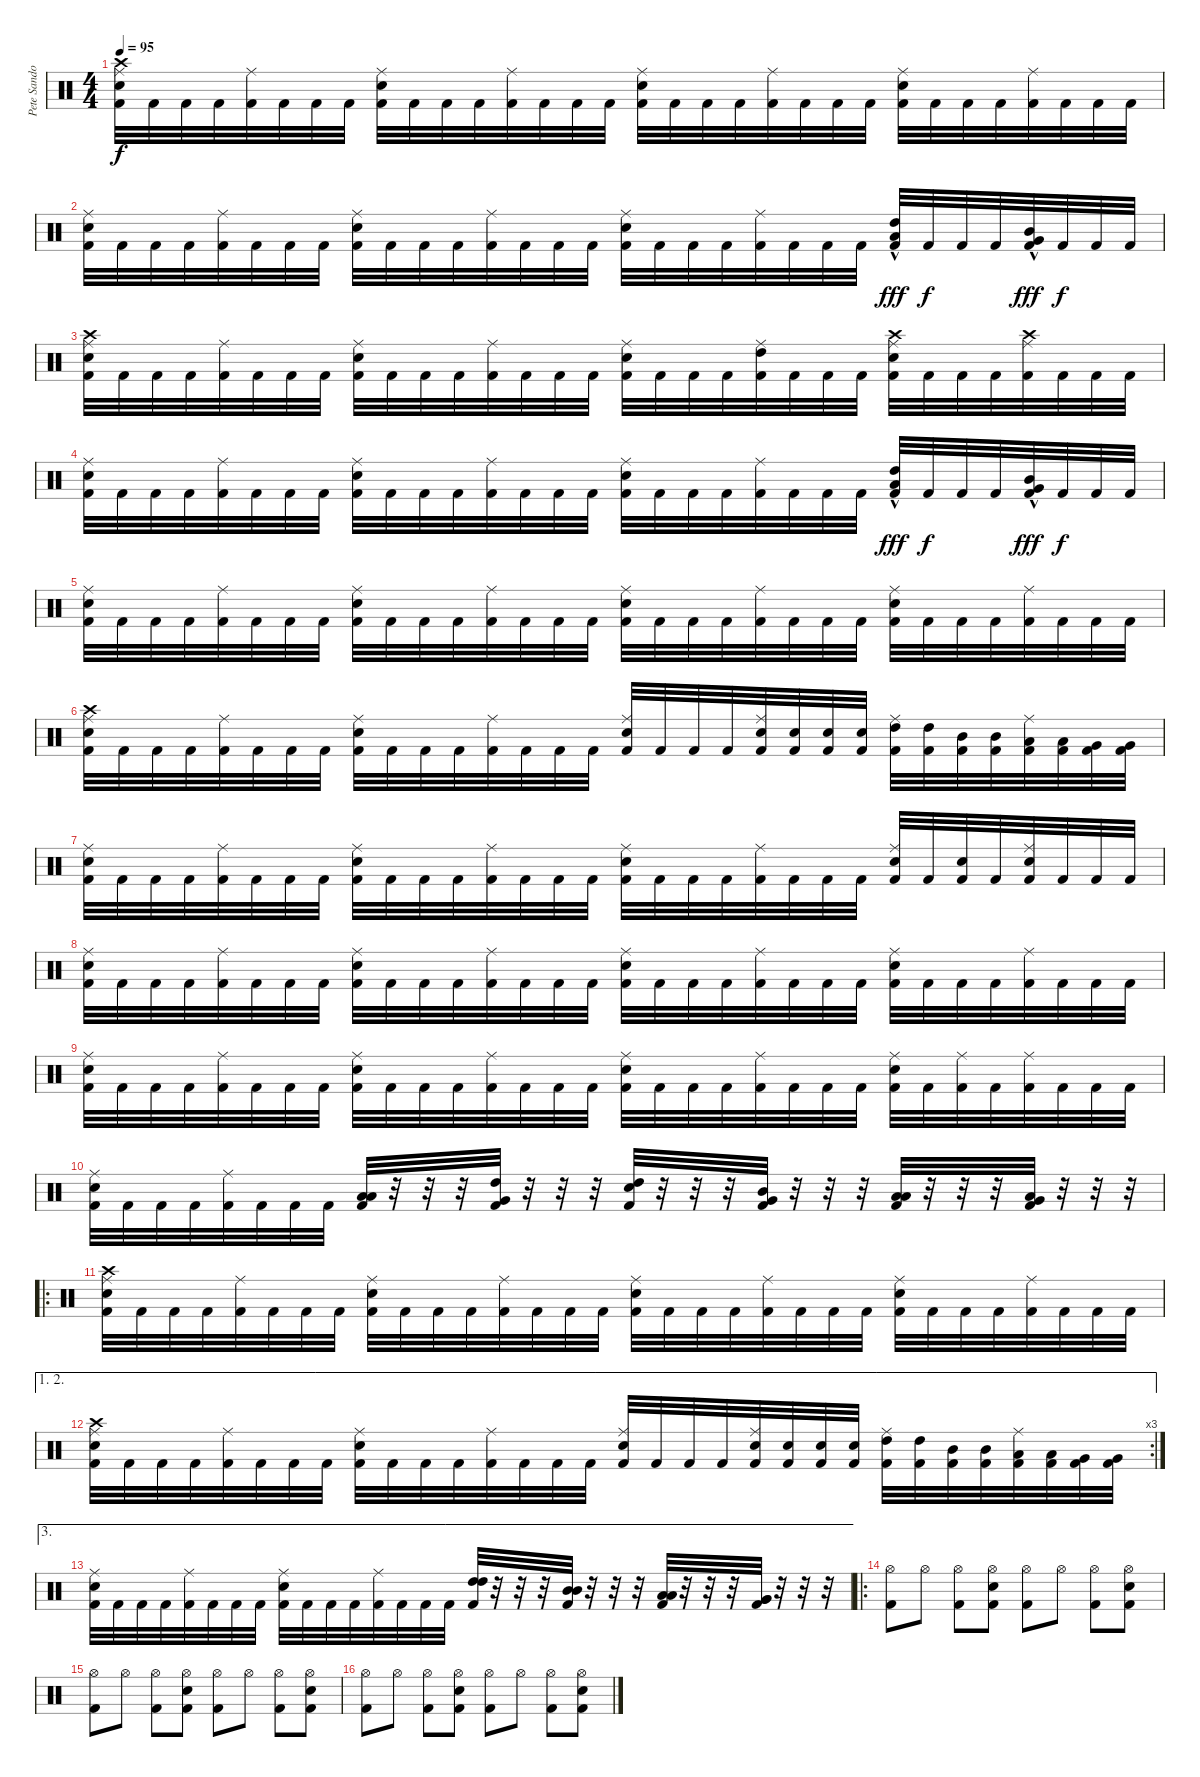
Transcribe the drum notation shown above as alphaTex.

\track ("Pete Sandoval" "Pete Sando") {instrument percussion}
\staff {score}
\articulation defaults
\ts (4 4)
\tempo 95
\clef neutral
\ks c
("Crash high (hit)" "Electric Snare (hit)" "Ride (middle)" "Kick (hit) 2").32{dy f} "Kick (hit) 2".32 "Kick (hit) 2".32 "Kick (hit) 2".32 ("Ride (middle)" "Kick (hit) 2").32 "Kick (hit) 2".32 "Kick (hit) 2".32 "Kick (hit) 2".32 ("Electric Snare (hit)" "Ride (middle)" "Kick (hit) 2").32 "Kick (hit) 2".32 "Kick (hit) 2".32 "Kick (hit) 2".32 ("Ride (middle)" "Kick (hit) 2").32 "Kick (hit) 2".32 "Kick (hit) 2".32 "Kick (hit) 2".32 ("Electric Snare (hit)" "Ride (middle)" "Kick (hit) 2").32 "Kick (hit) 2".32 "Kick (hit) 2".32 "Kick (hit) 2".32 ("Ride (middle)" "Kick (hit) 2").32 "Kick (hit) 2".32 "Kick (hit) 2".32 "Kick (hit) 2".32 ("Electric Snare (hit)" "Ride (middle)" "Kick (hit) 2").32 "Kick (hit) 2".32 "Kick (hit) 2".32 "Kick (hit) 2".32 ("Ride (middle)" "Kick (hit) 2").32 "Kick (hit) 2".32 "Kick (hit) 2".32 "Kick (hit) 2".32 |
("Electric Snare (hit)" "Ride (middle)" "Kick (hit) 2").32 "Kick (hit) 2".32 "Kick (hit) 2".32 "Kick (hit) 2".32 ("Ride (middle)" "Kick (hit) 2").32 "Kick (hit) 2".32 "Kick (hit) 2".32 "Kick (hit) 2".32 ("Electric Snare (hit)" "Ride (middle)" "Kick (hit) 2").32 "Kick (hit) 2".32 "Kick (hit) 2".32 "Kick (hit) 2".32 ("Ride (middle)" "Kick (hit) 2").32 "Kick (hit) 2".32 "Kick (hit) 2".32 "Kick (hit) 2".32 ("Electric Snare (hit)" "Ride (middle)" "Kick (hit) 2").32 "Kick (hit) 2".32 "Kick (hit) 2".32 "Kick (hit) 2".32 ("Ride (middle)" "Kick (hit) 2").32 "Kick (hit) 2".32 "Kick (hit) 2".32 "Kick (hit) 2".32 ("Low Tom (hit)" "High Tom (hit)"{hac} "Kick (hit) 2").32{dy fff} "Kick (hit) 2".32{dy f} "Kick (hit) 2".32 "Kick (hit) 2".32 ("Very Low Tom (hit)"{hac} "Mid Tom (hit)"{hac} "Kick (hit) 2").32{dy fff} "Kick (hit) 2".32{dy f} "Kick (hit) 2".32 "Kick (hit) 2".32 |
("Crash high (hit)" "Electric Snare (hit)" "Ride (middle)" "Kick (hit) 2").32 "Kick (hit) 2".32 "Kick (hit) 2".32 "Kick (hit) 2".32 ("Ride (middle)" "Kick (hit) 2").32 "Kick (hit) 2".32 "Kick (hit) 2".32 "Kick (hit) 2".32 ("Electric Snare (hit)" "Ride (middle)" "Kick (hit) 2").32 "Kick (hit) 2".32 "Kick (hit) 2".32 "Kick (hit) 2".32 ("Ride (middle)" "Kick (hit) 2").32 "Kick (hit) 2".32 "Kick (hit) 2".32 "Kick (hit) 2".32 ("Electric Snare (hit)" "Ride (middle)" "Kick (hit) 2").32 "Kick (hit) 2".32 "Kick (hit) 2".32 "Kick (hit) 2".32 ("High Tom (hit)" "Ride (middle)" "Kick (hit) 2").32 "Kick (hit) 2".32 "Kick (hit) 2".32 "Kick (hit) 2".32 ("Crash high (hit)" "Electric Snare (hit)" "Ride (middle)" "Kick (hit) 2").32 "Kick (hit) 2".32 "Kick (hit) 2".32 "Kick (hit) 2".32 ("Crash high (hit)" "Ride (middle)" "Kick (hit) 2").32 "Kick (hit) 2".32 "Kick (hit) 2".32 "Kick (hit) 2".32 |
("Electric Snare (hit)" "Ride (middle)" "Kick (hit) 2").32 "Kick (hit) 2".32 "Kick (hit) 2".32 "Kick (hit) 2".32 ("Ride (middle)" "Kick (hit) 2").32 "Kick (hit) 2".32 "Kick (hit) 2".32 "Kick (hit) 2".32 ("Electric Snare (hit)" "Ride (middle)" "Kick (hit) 2").32 "Kick (hit) 2".32 "Kick (hit) 2".32 "Kick (hit) 2".32 ("Ride (middle)" "Kick (hit) 2").32 "Kick (hit) 2".32 "Kick (hit) 2".32 "Kick (hit) 2".32 ("Electric Snare (hit)" "Ride (middle)" "Kick (hit) 2").32 "Kick (hit) 2".32 "Kick (hit) 2".32 "Kick (hit) 2".32 ("Ride (middle)" "Kick (hit) 2").32 "Kick (hit) 2".32 "Kick (hit) 2".32 "Kick (hit) 2".32 ("Low Tom (hit)" "High Tom (hit)"{hac} "Kick (hit) 2").32{dy fff} "Kick (hit) 2".32{dy f} "Kick (hit) 2".32 "Kick (hit) 2".32 ("Very Low Tom (hit)"{hac} "Mid Tom (hit)"{hac} "Kick (hit) 2").32{dy fff} "Kick (hit) 2".32{dy f} "Kick (hit) 2".32 "Kick (hit) 2".32 |
("Electric Snare (hit)" "Ride (middle)" "Kick (hit) 2").32 "Kick (hit) 2".32 "Kick (hit) 2".32 "Kick (hit) 2".32 ("Ride (middle)" "Kick (hit) 2").32 "Kick (hit) 2".32 "Kick (hit) 2".32 "Kick (hit) 2".32 ("Electric Snare (hit)" "Ride (middle)" "Kick (hit) 2").32 "Kick (hit) 2".32 "Kick (hit) 2".32 "Kick (hit) 2".32 ("Ride (middle)" "Kick (hit) 2").32 "Kick (hit) 2".32 "Kick (hit) 2".32 "Kick (hit) 2".32 ("Electric Snare (hit)" "Ride (middle)" "Kick (hit) 2").32 "Kick (hit) 2".32 "Kick (hit) 2".32 "Kick (hit) 2".32 ("Ride (middle)" "Kick (hit) 2").32 "Kick (hit) 2".32 "Kick (hit) 2".32 "Kick (hit) 2".32 ("Electric Snare (hit)" "Ride (middle)" "Kick (hit) 2").32 "Kick (hit) 2".32 "Kick (hit) 2".32 "Kick (hit) 2".32 ("Ride (middle)" "Kick (hit) 2").32 "Kick (hit) 2".32 "Kick (hit) 2".32 "Kick (hit) 2".32 |
("Crash high (hit)" "Electric Snare (hit)" "Ride (middle)" "Kick (hit) 2").32 "Kick (hit) 2".32 "Kick (hit) 2".32 "Kick (hit) 2".32 ("Ride (middle)" "Kick (hit) 2").32 "Kick (hit) 2".32 "Kick (hit) 2".32 "Kick (hit) 2".32 ("Electric Snare (hit)" "Ride (middle)" "Kick (hit) 2").32 "Kick (hit) 2".32 "Kick (hit) 2".32 "Kick (hit) 2".32 ("Ride (middle)" "Kick (hit) 2").32 "Kick (hit) 2".32 "Kick (hit) 2".32 "Kick (hit) 2".32 ("Electric Snare (hit)" "Ride (middle)" "Kick (hit) 2").32 "Kick (hit) 2".32 "Kick (hit) 2".32 "Kick (hit) 2".32 ("Electric Snare (hit)" "Ride (middle)" "Kick (hit) 2").32 ("Electric Snare (hit)" "Kick (hit) 2").32 ("Electric Snare (hit)" "Kick (hit) 2").32 ("Electric Snare (hit)" "Kick (hit) 2").32 ("High Tom (hit)" "Ride (middle)" "Kick (hit) 2").32 ("High Tom (hit)" "Kick (hit) 2").32 ("Mid Tom (hit)" "Kick (hit) 2").32 ("Mid Tom (hit)" "Kick (hit) 2").32 ("Low Tom (hit)" "Ride (middle)" "Kick (hit) 2").32 ("Low Tom (hit)" "Kick (hit) 2").32 ("Very Low Tom (hit)" "Kick (hit) 2").32 ("Very Low Tom (hit)" "Kick (hit) 2").32 |
("Electric Snare (hit)" "Ride (middle)" "Kick (hit) 2").32 "Kick (hit) 2".32 "Kick (hit) 2".32 "Kick (hit) 2".32 ("Ride (middle)" "Kick (hit) 2").32 "Kick (hit) 2".32 "Kick (hit) 2".32 "Kick (hit) 2".32 ("Electric Snare (hit)" "Ride (middle)" "Kick (hit) 2").32 "Kick (hit) 2".32 "Kick (hit) 2".32 "Kick (hit) 2".32 ("Ride (middle)" "Kick (hit) 2").32 "Kick (hit) 2".32 "Kick (hit) 2".32 "Kick (hit) 2".32 ("Electric Snare (hit)" "Ride (middle)" "Kick (hit) 2").32 "Kick (hit) 2".32 "Kick (hit) 2".32 "Kick (hit) 2".32 ("Ride (middle)" "Kick (hit) 2").32 "Kick (hit) 2".32 "Kick (hit) 2".32 "Kick (hit) 2".32 ("Electric Snare (hit)" "Ride (middle)" "Kick (hit) 2").32 "Kick (hit) 2".32 ("Electric Snare (hit)" "Kick (hit) 2").32 "Kick (hit) 2".32 ("Electric Snare (hit)" "Ride (middle)" "Kick (hit) 2").32 "Kick (hit) 2".32 "Kick (hit) 2".32 "Kick (hit) 2".32 |
("Electric Snare (hit)" "Ride (middle)" "Kick (hit) 2").32 "Kick (hit) 2".32 "Kick (hit) 2".32 "Kick (hit) 2".32 ("Ride (middle)" "Kick (hit) 2").32 "Kick (hit) 2".32 "Kick (hit) 2".32 "Kick (hit) 2".32 ("Electric Snare (hit)" "Ride (middle)" "Kick (hit) 2").32 "Kick (hit) 2".32 "Kick (hit) 2".32 "Kick (hit) 2".32 ("Ride (middle)" "Kick (hit) 2").32 "Kick (hit) 2".32 "Kick (hit) 2".32 "Kick (hit) 2".32 ("Electric Snare (hit)" "Ride (middle)" "Kick (hit) 2").32 "Kick (hit) 2".32 "Kick (hit) 2".32 "Kick (hit) 2".32 ("Ride (middle)" "Kick (hit) 2").32 "Kick (hit) 2".32 "Kick (hit) 2".32 "Kick (hit) 2".32 ("Electric Snare (hit)" "Ride (middle)" "Kick (hit) 2").32 "Kick (hit) 2".32 "Kick (hit) 2".32 "Kick (hit) 2".32 ("Ride (middle)" "Kick (hit) 2").32 "Kick (hit) 2".32 "Kick (hit) 2".32 "Kick (hit) 2".32 |
("Electric Snare (hit)" "Ride (middle)" "Kick (hit) 2").32 "Kick (hit) 2".32 "Kick (hit) 2".32 "Kick (hit) 2".32 ("Ride (middle)" "Kick (hit) 2").32 "Kick (hit) 2".32 "Kick (hit) 2".32 "Kick (hit) 2".32 ("Electric Snare (hit)" "Ride (middle)" "Kick (hit) 2").32 "Kick (hit) 2".32 "Kick (hit) 2".32 "Kick (hit) 2".32 ("Ride (middle)" "Kick (hit) 2").32 "Kick (hit) 2".32 "Kick (hit) 2".32 "Kick (hit) 2".32 ("Electric Snare (hit)" "Ride (middle)" "Kick (hit) 2").32 "Kick (hit) 2".32 "Kick (hit) 2".32 "Kick (hit) 2".32 ("Ride (middle)" "Kick (hit) 2").32 "Kick (hit) 2".32 "Kick (hit) 2".32 "Kick (hit) 2".32 ("Electric Snare (hit)" "Ride (middle)" "Kick (hit) 2").32 "Kick (hit) 2".32 ("Ride (middle)" "Kick (hit) 2").32 "Kick (hit) 2".32 ("Ride (middle)" "Kick (hit) 2").32 "Kick (hit) 2".32 "Kick (hit) 2".32 "Kick (hit) 2".32 |
("Electric Snare (hit)" "Ride (middle)" "Kick (hit) 2").32 "Kick (hit) 2".32 "Kick (hit) 2".32 "Kick (hit) 2".32 ("Ride (middle)" "Kick (hit) 2").32 "Kick (hit) 2".32 "Kick (hit) 2".32 "Kick (hit) 2".32 ("Low Tom (hit)" "Low Floor Tom (hit)" "Kick (hit) 2").32 r.32 r.32 r.32 ("High Tom (hit)" "Very Low Tom (hit)" "Kick (hit) 2").32 r.32 r.32 r.32 ("High Tom (hit)" "Electric Snare (hit)" "Kick (hit) 2").32 r.32 r.32 r.32 ("Mid Tom (hit)" "Very Low Tom (hit)" "Kick (hit) 2").32 r.32 r.32 r.32 ("Low Tom (hit)" "Low Floor Tom (hit)" "Kick (hit) 2").32 r.32 r.32 r.32 ("Very Low Tom (hit)" "Low Floor Tom (hit)" "Kick (hit) 2").32 r.32 r.32 r.32 |
\ro
("Crash high (hit)" "Electric Snare (hit)" "Ride (middle)" "Kick (hit) 2").32 "Kick (hit) 2".32 "Kick (hit) 2".32 "Kick (hit) 2".32 ("Ride (middle)" "Kick (hit) 2").32 "Kick (hit) 2".32 "Kick (hit) 2".32 "Kick (hit) 2".32 ("Electric Snare (hit)" "Ride (middle)" "Kick (hit) 2").32 "Kick (hit) 2".32 "Kick (hit) 2".32 "Kick (hit) 2".32 ("Ride (middle)" "Kick (hit) 2").32 "Kick (hit) 2".32 "Kick (hit) 2".32 "Kick (hit) 2".32 ("Electric Snare (hit)" "Ride (middle)" "Kick (hit) 2").32 "Kick (hit) 2".32 "Kick (hit) 2".32 "Kick (hit) 2".32 ("Ride (middle)" "Kick (hit) 2").32 "Kick (hit) 2".32 "Kick (hit) 2".32 "Kick (hit) 2".32 ("Electric Snare (hit)" "Ride (middle)" "Kick (hit) 2").32 "Kick (hit) 2".32 "Kick (hit) 2".32 "Kick (hit) 2".32 ("Ride (middle)" "Kick (hit) 2").32 "Kick (hit) 2".32 "Kick (hit) 2".32 "Kick (hit) 2".32 |
\ae (1 2)
\rc 3
("Crash high (hit)" "Electric Snare (hit)" "Ride (middle)" "Kick (hit) 2").32 "Kick (hit) 2".32 "Kick (hit) 2".32 "Kick (hit) 2".32 ("Ride (middle)" "Kick (hit) 2").32 "Kick (hit) 2".32 "Kick (hit) 2".32 "Kick (hit) 2".32 ("Electric Snare (hit)" "Ride (middle)" "Kick (hit) 2").32 "Kick (hit) 2".32 "Kick (hit) 2".32 "Kick (hit) 2".32 ("Ride (middle)" "Kick (hit) 2").32 "Kick (hit) 2".32 "Kick (hit) 2".32 "Kick (hit) 2".32 ("Electric Snare (hit)" "Ride (middle)" "Kick (hit) 2").32 "Kick (hit) 2".32 "Kick (hit) 2".32 "Kick (hit) 2".32 ("Electric Snare (hit)" "Ride (middle)" "Kick (hit) 2").32 ("Electric Snare (hit)" "Kick (hit) 2").32 ("Electric Snare (hit)" "Kick (hit) 2").32 ("Electric Snare (hit)" "Kick (hit) 2").32 ("High Tom (hit)" "Ride (middle)" "Kick (hit) 2").32 ("High Tom (hit)" "Kick (hit) 2").32 ("Mid Tom (hit)" "Kick (hit) 2").32 ("Mid Tom (hit)" "Kick (hit) 2").32 ("Low Tom (hit)" "Ride (middle)" "Kick (hit) 2").32 ("Low Tom (hit)" "Kick (hit) 2").32 ("Very Low Tom (hit)" "Kick (hit) 2").32 ("Very Low Tom (hit)" "Kick (hit) 2").32 |
\ae 3
("Electric Snare (hit)" "Ride (middle)" "Kick (hit) 2").32 "Kick (hit) 2".32 "Kick (hit) 2".32 "Kick (hit) 2".32 ("Ride (middle)" "Kick (hit) 2").32 "Kick (hit) 2".32 "Kick (hit) 2".32 "Kick (hit) 2".32 ("Electric Snare (hit)" "Ride (middle)" "Kick (hit) 2").32 "Kick (hit) 2".32 "Kick (hit) 2".32 "Kick (hit) 2".32 ("Ride (middle)" "Kick (hit) 2").32 "Kick (hit) 2".32 "Kick (hit) 2".32 "Kick (hit) 2".32 ("High Tom (hit)" "High Tom (hit)" "Kick (hit) 2").32 r.32 r.32 r.32 ("Mid Tom (hit)" "Mid Tom (hit)" "Kick (hit) 2").32 r.32 r.32 r.32 ("Low Tom (hit)" "Low Tom (hit)" "Kick (hit) 2").32 r.32 r.32 r.32 ("Very Low Tom (hit)" "Very Low Tom (hit)" "Kick (hit) 2").32 r.32 r.32 r.32 |
\ro
("Hi-Hat (open)" "Kick (hit) 2").8 "Hi-Hat (open)".8 ("Hi-Hat (open)" "Kick (hit) 2").8 ("Hi-Hat (open)" "Electric Snare (hit)" "Kick (hit) 2").8 ("Hi-Hat (open)" "Kick (hit) 2").8 "Hi-Hat (open)".8 ("Hi-Hat (open)" "Kick (hit) 2").8 ("Hi-Hat (open)" "Electric Snare (hit)" "Kick (hit) 2").8 |
("Hi-Hat (open)" "Kick (hit) 2").8 "Hi-Hat (open)".8 ("Hi-Hat (open)" "Kick (hit) 2").8 ("Hi-Hat (open)" "Electric Snare (hit)" "Kick (hit) 2").8 ("Hi-Hat (open)" "Kick (hit) 2").8 "Hi-Hat (open)".8 ("Hi-Hat (open)" "Kick (hit) 2").8 ("Hi-Hat (open)" "Electric Snare (hit)" "Kick (hit) 2").8 |
("Hi-Hat (open)" "Kick (hit) 2").8 "Hi-Hat (open)".8 ("Hi-Hat (open)" "Kick (hit) 2").8 ("Hi-Hat (open)" "Electric Snare (hit)" "Kick (hit) 2").8 ("Hi-Hat (open)" "Kick (hit) 2").8 "Hi-Hat (open)".8 ("Hi-Hat (open)" "Kick (hit) 2").8 ("Hi-Hat (open)" "Electric Snare (hit)" "Kick (hit) 2").8
